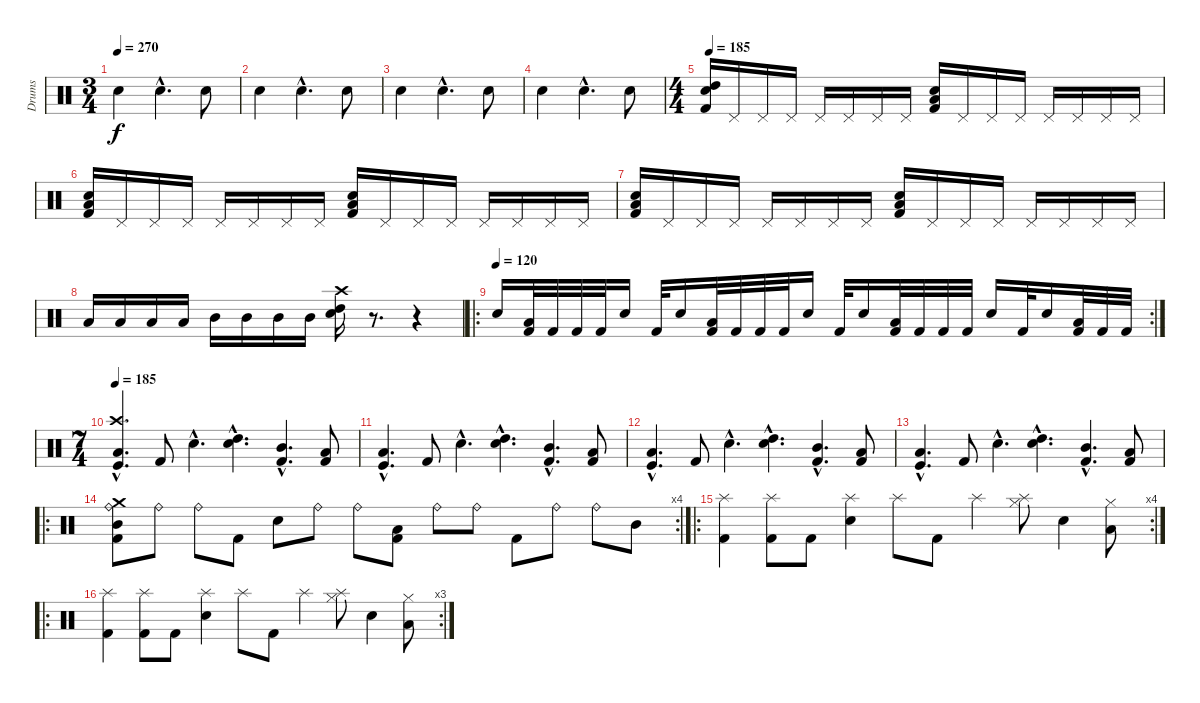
\track ("Drums" "Drums") {instrument percussion}
\staff {score}
\articulation defaults
\ts (3 4)
\tempo 270
\clef neutral
\ks c "Electric Snare (hit)".4{dy f} "Electric Snare (hit)"{hac}.4{d} "Electric Snare (hit)".8
|
"Electric Snare (hit)".4 "Electric Snare (hit)"{hac}.4{d} "Electric Snare (hit)".8 |
"Electric Snare (hit)".4 "Electric Snare (hit)"{hac}.4{d} "Electric Snare (hit)".8 |
"Electric Snare (hit)".4 "Electric Snare (hit)"{hac}.4{d} "Electric Snare (hit)".8 |
\ts (4 4)
\tempo 185
("Kick (hit) 2" "High Tom (hit)" "Electric Snare (hit)").16 "Pedal Hi-Hat (hit)".16 "Pedal Hi-Hat (hit)".16 "Pedal Hi-Hat (hit)".16 "Pedal Hi-Hat (hit)".16 "Pedal Hi-Hat (hit)".16 "Pedal Hi-Hat (hit)".16 "Pedal Hi-Hat (hit)".16 ("Low Tom (hit)" "Electric Snare (hit)" "Kick (hit) 2").16 "Pedal Hi-Hat (hit)".16 "Pedal Hi-Hat (hit)".16 "Pedal Hi-Hat (hit)".16 "Pedal Hi-Hat (hit)".16 "Pedal Hi-Hat (hit)".16 "Pedal Hi-Hat (hit)".16 "Pedal Hi-Hat (hit)".16 |
("Low Tom (hit)" "Electric Snare (hit)" "Kick (hit) 2").16 "Pedal Hi-Hat (hit)".16 "Pedal Hi-Hat (hit)".16 "Pedal Hi-Hat (hit)".16 "Pedal Hi-Hat (hit)".16 "Pedal Hi-Hat (hit)".16 "Pedal Hi-Hat (hit)".16 "Pedal Hi-Hat (hit)".16 ("Low Tom (hit)" "Electric Snare (hit)" "Kick (hit) 2").16 "Pedal Hi-Hat (hit)".16 "Pedal Hi-Hat (hit)".16 "Pedal Hi-Hat (hit)".16 "Pedal Hi-Hat (hit)".16 "Pedal Hi-Hat (hit)".16 "Pedal Hi-Hat (hit)".16 "Pedal Hi-Hat (hit)".16 |
("Low Tom (hit)" "Electric Snare (hit)" "Kick (hit) 2").16 "Pedal Hi-Hat (hit)".16 "Pedal Hi-Hat (hit)".16 "Pedal Hi-Hat (hit)".16 "Pedal Hi-Hat (hit)".16 "Pedal Hi-Hat (hit)".16 "Pedal Hi-Hat (hit)".16 "Pedal Hi-Hat (hit)".16 ("Low Tom (hit)" "Electric Snare (hit)" "Kick (hit) 2").16 "Pedal Hi-Hat (hit)".16 "Pedal Hi-Hat (hit)".16 "Pedal Hi-Hat (hit)".16 "Pedal Hi-Hat (hit)".16 "Pedal Hi-Hat (hit)".16 "Pedal Hi-Hat (hit)".16 "Pedal Hi-Hat (hit)".16 |
"Low Tom (hit)".16 "Low Tom (hit)".16 "Low Tom (hit)".16 "Low Tom (hit)".16 "Mid Tom (hit)".16 "Mid Tom (hit)".16 "Mid Tom (hit)".16 "Mid Tom (hit)".16 ("Electric Snare (hit)" "Crash high (hit)" "High Tom (hit)").16 r.8{d} r.4 |
\ro
\rc 2
\tempo (120)
"Electric Snare (hit)".16 ("Low Tom (hit)" "Kick (hit) 2").32 "Kick (hit) 2".32 "Kick (hit) 2".32 "Kick (hit) 2".32 "Electric Snare (hit)".16 "Kick (hit) 2".32 "Electric Snare (hit)".16 ("Low Tom (hit)" "Kick (hit) 2").32 "Kick (hit) 2".32 "Kick (hit) 2".32 "Kick (hit) 2".32 "Electric Snare (hit)".16 "Kick (hit) 2".32 "Electric Snare (hit)".16 ("Kick (hit) 2" "Low Tom (hit)").32 "Kick (hit) 2".32 "Kick (hit) 2".32 "Kick (hit) 2".32 "Electric Snare (hit)".16 "Kick (hit) 2".32 "Electric Snare (hit)".16 ("Kick (hit) 2" "Low Tom (hit)").32 "Kick (hit) 2".32 "Kick (hit) 2".32 |
\ts (7 4)
\tempo 185
("Kick (hit)"{hac} "Low Tom (hit)"{hac} "Crash high (hit)"{hac}).4{d} "Kick (hit) 2".8 "Electric Snare (hit)"{hac}.4{d} ("High Tom (hit)"{hac} "Electric Snare (hit)"{hac}).4{d} ("Mid Tom (hit)"{hac} "Kick (hit) 2"{hac}).4{d} ("Low Tom (hit)" "Kick (hit) 2").8 |
("Kick (hit)"{hac} "Low Tom (hit)"{hac}).4{d} "Kick (hit) 2".8 "Electric Snare (hit)"{hac}.4{d} ("High Tom (hit)"{hac} "Electric Snare (hit)"{hac}).4{d} ("Mid Tom (hit)"{hac} "Kick (hit) 2"{hac}).4{d} ("Low Tom (hit)" "Kick (hit) 2").8 |
("Kick (hit)"{hac} "Low Tom (hit)"{hac}).4{d} "Kick (hit) 2".8 "Electric Snare (hit)"{hac}.4{d} ("High Tom (hit)"{hac} "Electric Snare (hit)"{hac}).4{d} ("Mid Tom (hit)"{hac} "Kick (hit) 2"{hac}).4{d} ("Low Tom (hit)" "Kick (hit) 2").8 |
("Kick (hit)"{hac} "Low Tom (hit)"{hac}).4{d} "Kick (hit) 2".8 "Electric Snare (hit)"{hac}.4{d} ("High Tom (hit)"{hac} "Electric Snare (hit)"{hac}).4{d} ("Mid Tom (hit)"{hac} "Kick (hit) 2"{hac}).4{d} ("Low Tom (hit)" "Kick (hit) 2").8 |
\ro
\rc 4
("Kick (hit) 2" "Ride (bell)" "Mid Tom (hit)" "Crash medium (hit)").8 "Ride (bell)".8 "Ride (bell)".8 "Kick (hit) 2".8 "Electric Snare (hit)".8 "Ride (bell)".8 "Ride (bell)".8 ("Low Tom (hit)" "Kick (hit) 2").8 "Ride (bell)".8 "Ride (bell)".8 "Kick (hit) 2".8 "Ride (bell)".8 "Ride (bell)".8 "Mid Tom (hit)".8 |
\ro
\rc 4
("Kick (hit) 2" "Splash (hit)").4 ("Splash (hit)" "Kick (hit) 2").8 "Kick (hit) 2".8 ("Splash (hit)" "Electric Snare (hit)").4 "Splash (hit)".8 "Kick (hit) 2".8 "Splash (hit)".4 ("Splash (hit)" "Hi-Hat (closed)").8 "Electric Snare (hit)".4 ("Hi-Hat (closed)" "Low Tom (hit)").8 |
\ro
\rc 3
("Kick (hit) 2" "Splash (hit)").4 ("Splash (hit)" "Kick (hit) 2").8 "Kick (hit) 2".8 ("Splash (hit)" "Electric Snare (hit)").4 "Splash (hit)".8 "Kick (hit) 2".8 "Splash (hit)".4 ("Splash (hit)" "Hi-Hat (closed)").8 "Electric Snare (hit)".4 ("Hi-Hat (closed)" "Low Tom (hit)").8
